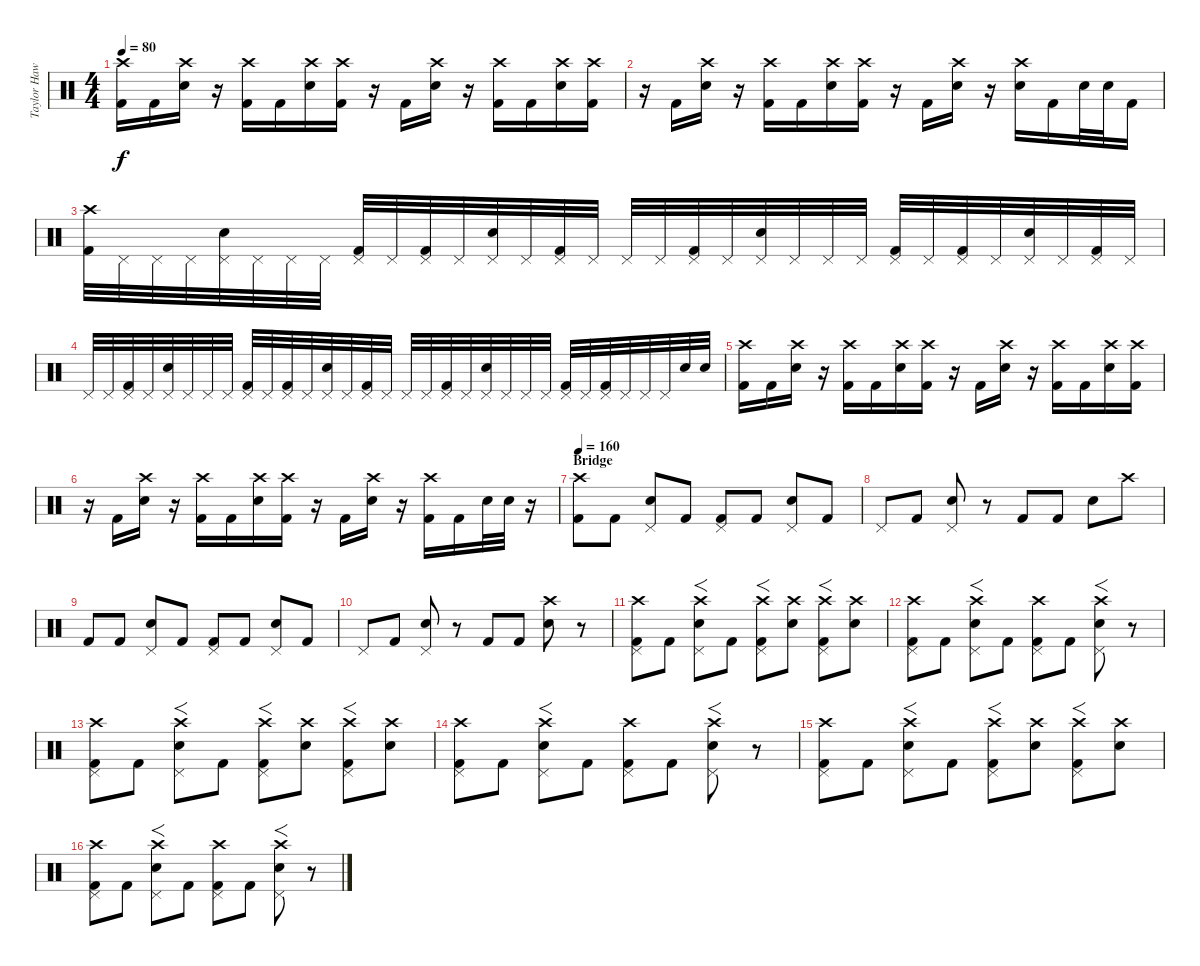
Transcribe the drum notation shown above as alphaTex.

\track ("Taylor Hawkins" "Taylor Haw") {instrument percussion}
\staff {score}
\articulation defaults
\ts (4 4)
\tempo 80
\clef neutral
\ks c
("Crash high (hit)" "Kick (hit) 2").16{dy f} "Kick (hit) 2".16 ("Crash high (hit)" "Snare (hit) 2").16 r.16 ("Crash high (hit)" "Kick (hit) 2").16 "Kick (hit) 2".16 ("Crash high (hit)" "Snare (hit) 2").16 ("Crash high (hit)" "Kick (hit) 2").16 r.16 "Kick (hit) 2".16 ("Crash high (hit)" "Snare (hit) 2").16 r.16 ("Crash high (hit)" "Kick (hit) 2").16 "Kick (hit) 2".16 ("Crash high (hit)" "Snare (hit) 2").16 ("Crash high (hit)" "Kick (hit) 2").16 |
r.16 "Kick (hit) 2".16 ("Crash high (hit)" "Snare (hit) 2").16 r.16 ("Crash high (hit)" "Kick (hit) 2").16 "Kick (hit) 2".16 ("Crash high (hit)" "Snare (hit) 2").16 ("Crash high (hit)" "Kick (hit) 2").16 r.16 "Kick (hit) 2".16 ("Crash high (hit)" "Snare (hit) 2").16 r.16 ("Crash high (hit)" "Snare (hit) 2").16 "Kick (hit) 2".16 "Snare (hit) 2".32 "Snare (hit) 2".32 "Kick (hit) 2".16 |
("Crash high (hit)" "Kick (hit) 2").32 "Pedal Hi-Hat (hit)".32 "Pedal Hi-Hat (hit)".32 "Pedal Hi-Hat (hit)".32 ("Pedal Hi-Hat (hit)" "Snare (hit) 2").32 "Pedal Hi-Hat (hit)".32 "Pedal Hi-Hat (hit)".32 "Pedal Hi-Hat (hit)".32 ("Pedal Hi-Hat (hit)" "Kick (hit) 2").32 "Pedal Hi-Hat (hit)".32 ("Pedal Hi-Hat (hit)" "Kick (hit) 2").32 "Pedal Hi-Hat (hit)".32 ("Pedal Hi-Hat (hit)" "Snare (hit) 2").32 "Pedal Hi-Hat (hit)".32 ("Pedal Hi-Hat (hit)" "Kick (hit) 2").32 "Pedal Hi-Hat (hit)".32 "Pedal Hi-Hat (hit)".32 "Pedal Hi-Hat (hit)".32 ("Pedal Hi-Hat (hit)" "Kick (hit) 2").32 "Pedal Hi-Hat (hit)".32 ("Pedal Hi-Hat (hit)" "Snare (hit) 2").32 "Pedal Hi-Hat (hit)".32 "Pedal Hi-Hat (hit)".32 "Pedal Hi-Hat (hit)".32 ("Pedal Hi-Hat (hit)" "Kick (hit) 2").32 "Pedal Hi-Hat (hit)".32 ("Pedal Hi-Hat (hit)" "Kick (hit) 2").32 "Pedal Hi-Hat (hit)".32 ("Pedal Hi-Hat (hit)" "Snare (hit) 2").32 "Pedal Hi-Hat (hit)".32 ("Pedal Hi-Hat (hit)" "Kick (hit) 2").32 "Pedal Hi-Hat (hit)".32 |
"Pedal Hi-Hat (hit)".32 "Pedal Hi-Hat (hit)".32 ("Pedal Hi-Hat (hit)" "Kick (hit) 2").32 "Pedal Hi-Hat (hit)".32 ("Pedal Hi-Hat (hit)" "Snare (hit) 2").32 "Pedal Hi-Hat (hit)".32 "Pedal Hi-Hat (hit)".32 "Pedal Hi-Hat (hit)".32 ("Pedal Hi-Hat (hit)" "Kick (hit) 2").32 "Pedal Hi-Hat (hit)".32 ("Pedal Hi-Hat (hit)" "Kick (hit) 2").32 "Pedal Hi-Hat (hit)".32 ("Pedal Hi-Hat (hit)" "Snare (hit) 2").32 "Pedal Hi-Hat (hit)".32 ("Pedal Hi-Hat (hit)" "Kick (hit) 2").32 "Pedal Hi-Hat (hit)".32 "Pedal Hi-Hat (hit)".32 "Pedal Hi-Hat (hit)".32 ("Pedal Hi-Hat (hit)" "Kick (hit) 2").32 "Pedal Hi-Hat (hit)".32 ("Pedal Hi-Hat (hit)" "Snare (hit) 2").32 "Pedal Hi-Hat (hit)".32 "Pedal Hi-Hat (hit)".32 "Pedal Hi-Hat (hit)".32 ("Pedal Hi-Hat (hit)" "Kick (hit) 2").32 "Pedal Hi-Hat (hit)".32 ("Pedal Hi-Hat (hit)" "Kick (hit) 2").32 "Pedal Hi-Hat (hit)".32 "Pedal Hi-Hat (hit)".32 "Pedal Hi-Hat (hit)".32 "Snare (hit) 2".32 "Snare (hit) 2".32 |
("Crash high (hit)" "Kick (hit) 2").16 "Kick (hit) 2".16 ("Crash high (hit)" "Snare (hit) 2").16 r.16 ("Crash high (hit)" "Kick (hit) 2").16 "Kick (hit) 2".16 ("Crash high (hit)" "Snare (hit) 2").16 ("Crash high (hit)" "Kick (hit) 2").16 r.16 "Kick (hit) 2".16 ("Crash high (hit)" "Snare (hit) 2").16 r.16 ("Crash high (hit)" "Kick (hit) 2").16 "Kick (hit) 2".16 ("Crash high (hit)" "Snare (hit) 2").16 ("Crash high (hit)" "Kick (hit) 2").16 |
r.16 "Kick (hit) 2".16 ("Crash high (hit)" "Snare (hit) 2").16 r.16 ("Crash high (hit)" "Kick (hit) 2").16 "Kick (hit) 2".16 ("Crash high (hit)" "Snare (hit) 2").16 ("Crash high (hit)" "Kick (hit) 2").16 r.16 "Kick (hit) 2".16 ("Crash high (hit)" "Snare (hit) 2").16 r.16 ("Crash high (hit)" "Kick (hit) 2").16 "Kick (hit) 2".16 "Snare (hit) 2".32 "Snare (hit) 2".32 r.16 |
\section ("" "Bridge")
\tempo 160
("Crash high (hit)" "Kick (hit) 2").8 "Kick (hit) 2".8 ("Pedal Hi-Hat (hit)" "Snare (hit) 2").8 "Kick (hit) 2".8 ("Pedal Hi-Hat (hit)" "Kick (hit) 2").8 "Kick (hit) 2".8 ("Pedal Hi-Hat (hit)" "Snare (hit) 2").8 "Kick (hit) 2".8 |
"Pedal Hi-Hat (hit)".8 "Kick (hit) 2".8 ("Pedal Hi-Hat (hit)" "Snare (hit) 2").8 r.8 "Kick (hit) 2".8 "Kick (hit) 2".8 "Snare (hit) 2".8 "Crash high (hit)".8 |
"Kick (hit) 2".8 "Kick (hit) 2".8 ("Pedal Hi-Hat (hit)" "Snare (hit) 2").8 "Kick (hit) 2".8 ("Pedal Hi-Hat (hit)" "Kick (hit) 2").8 "Kick (hit) 2".8 ("Pedal Hi-Hat (hit)" "Snare (hit) 2").8 "Kick (hit) 2".8 |
"Pedal Hi-Hat (hit)".8 "Kick (hit) 2".8 ("Pedal Hi-Hat (hit)" "Snare (hit) 2").8 r.8 "Kick (hit) 2".8 "Kick (hit) 2".8 ("Crash high (hit)" "Snare (hit) 2").8 r.8 |
("Crash high (hit)" "Pedal Hi-Hat (hit)" "Kick (hit) 2").8 "Kick (hit) 2".8 ("Crash high (hit)" "Pedal Hi-Hat (hit)" "Snare (hit) 2").8{f} "Kick (hit) 2".8 ("Crash high (hit)" "Pedal Hi-Hat (hit)" "Kick (hit) 2").8{f} ("Crash high (hit)" "Snare (hit) 2").8 ("Crash high (hit)" "Pedal Hi-Hat (hit)" "Kick (hit) 2").8{f} ("Crash high (hit)" "Snare (hit) 2").8 |
("Crash high (hit)" "Pedal Hi-Hat (hit)" "Kick (hit) 2").8 "Kick (hit) 2".8 ("Crash high (hit)" "Pedal Hi-Hat (hit)" "Snare (hit) 2").8{f} "Kick (hit) 2".8 ("Crash high (hit)" "Pedal Hi-Hat (hit)" "Kick (hit) 2").8 "Kick (hit) 2".8 ("Crash high (hit)" "Pedal Hi-Hat (hit)" "Snare (hit) 2").8{f} r.8 |
("Crash high (hit)" "Pedal Hi-Hat (hit)" "Kick (hit) 2").8 "Kick (hit) 2".8 ("Crash high (hit)" "Pedal Hi-Hat (hit)" "Snare (hit) 2").8{f} "Kick (hit) 2".8 ("Crash high (hit)" "Pedal Hi-Hat (hit)" "Kick (hit) 2").8{f} ("Crash high (hit)" "Snare (hit) 2").8 ("Crash high (hit)" "Pedal Hi-Hat (hit)" "Kick (hit) 2").8{f} ("Crash high (hit)" "Snare (hit) 2").8 |
("Crash high (hit)" "Pedal Hi-Hat (hit)" "Kick (hit) 2").8 "Kick (hit) 2".8 ("Crash high (hit)" "Pedal Hi-Hat (hit)" "Snare (hit) 2").8{f} "Kick (hit) 2".8 ("Crash high (hit)" "Pedal Hi-Hat (hit)" "Kick (hit) 2").8 "Kick (hit) 2".8 ("Crash high (hit)" "Pedal Hi-Hat (hit)" "Snare (hit) 2").8{f} r.8 |
("Crash high (hit)" "Pedal Hi-Hat (hit)" "Kick (hit) 2").8 "Kick (hit) 2".8 ("Crash high (hit)" "Pedal Hi-Hat (hit)" "Snare (hit) 2").8{f} "Kick (hit) 2".8 ("Crash high (hit)" "Pedal Hi-Hat (hit)" "Kick (hit) 2").8{f} ("Crash high (hit)" "Snare (hit) 2").8 ("Crash high (hit)" "Pedal Hi-Hat (hit)" "Kick (hit) 2").8{f} ("Crash high (hit)" "Snare (hit) 2").8 |
("Crash high (hit)" "Pedal Hi-Hat (hit)" "Kick (hit) 2").8 "Kick (hit) 2".8 ("Crash high (hit)" "Pedal Hi-Hat (hit)" "Snare (hit) 2").8{f} "Kick (hit) 2".8 ("Crash high (hit)" "Pedal Hi-Hat (hit)" "Kick (hit) 2").8 "Kick (hit) 2".8 ("Crash high (hit)" "Pedal Hi-Hat (hit)" "Snare (hit) 2").8{f} r.8
